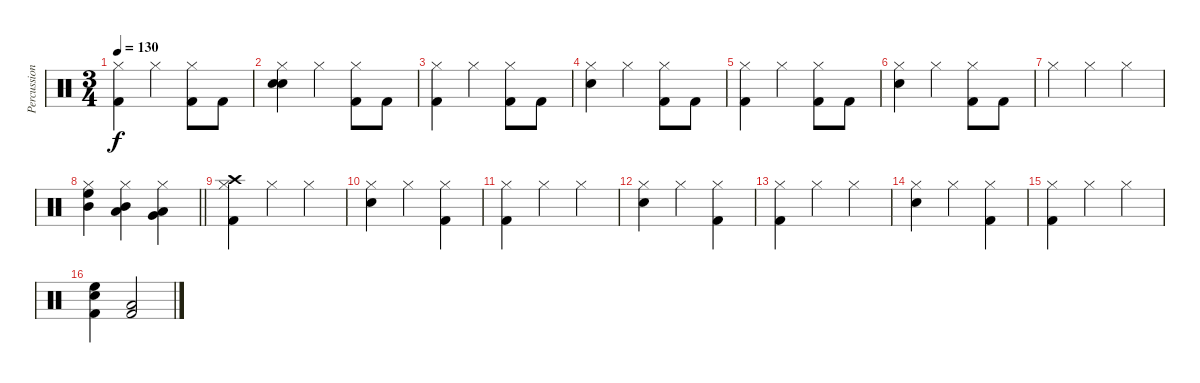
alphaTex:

\track ("Percussion" "Percussion") {instrument percussion}
\staff {score}
\articulation defaults
\ts (3 4)
\tempo 130
\clef neutral
\ks c
("Hi-Hat (closed)" "Kick (hit) 2").4{dy f} "Hi-Hat (closed)".4 ("Hi-Hat (closed)" "Kick (hit) 2").8 "Kick (hit) 2".8 |
("Hi-Hat (closed)" "Electric Snare (hit)" "Snare (hit)").4 "Hi-Hat (closed)".4 ("Hi-Hat (closed)" "Kick (hit) 2").8 "Kick (hit) 2".8 |
("Hi-Hat (closed)" "Kick (hit) 2").4 "Hi-Hat (closed)".4 ("Hi-Hat (closed)" "Kick (hit) 2").8 "Kick (hit) 2".8 |
("Hi-Hat (closed)" "Electric Snare (hit)").4 "Hi-Hat (closed)".4 ("Hi-Hat (closed)" "Kick (hit) 2").8 "Kick (hit) 2".8 |
("Hi-Hat (closed)" "Kick (hit) 2").4 "Hi-Hat (closed)".4 ("Hi-Hat (closed)" "Kick (hit) 2").8 "Kick (hit) 2".8 |
("Hi-Hat (closed)" "Electric Snare (hit)").4 "Hi-Hat (closed)".4 ("Hi-Hat (closed)" "Kick (hit) 2").8 "Kick (hit) 2".8 |
"Hi-Hat (closed)".4 "Hi-Hat (closed)".4 "Hi-Hat (closed)".4 |
\barLineRight lightlight
("Hi-Hat (closed)" "High Floor Tom (hit)" "Mid Tom (hit)").4 ("Hi-Hat (closed)" "Mid Tom (hit)" "Low Tom (hit)").4 ("Hi-Hat (closed)" "Low Tom (hit)" "Very Low Tom (hit)").4 |
("Crash high (hit)" "Hi-Hat (closed)" "Kick (hit) 2").4 "Hi-Hat (closed)".4 "Hi-Hat (closed)".4 |
("Hi-Hat (closed)" "Electric Snare (hit)").4 "Hi-Hat (closed)".4 ("Hi-Hat (closed)" "Kick (hit) 2").4 |
("Hi-Hat (closed)" "Kick (hit) 2").4 "Hi-Hat (closed)".4 "Hi-Hat (closed)".4 |
("Hi-Hat (closed)" "Electric Snare (hit)").4 "Hi-Hat (closed)".4 ("Hi-Hat (closed)" "Kick (hit) 2").4 |
("Hi-Hat (closed)" "Kick (hit) 2").4 "Hi-Hat (closed)".4 "Hi-Hat (closed)".4 |
("Hi-Hat (closed)" "Electric Snare (hit)").4 "Hi-Hat (closed)".4 ("Hi-Hat (closed)" "Kick (hit) 2").4 |
("Hi-Hat (closed)" "Kick (hit) 2").4 "Hi-Hat (closed)".4 "Hi-Hat (closed)".4 |
("High Floor Tom (hit)" "Electric Snare (hit)" "Kick (hit) 2").4 ("Low Tom (hit)" "Kick (hit) 2").2
